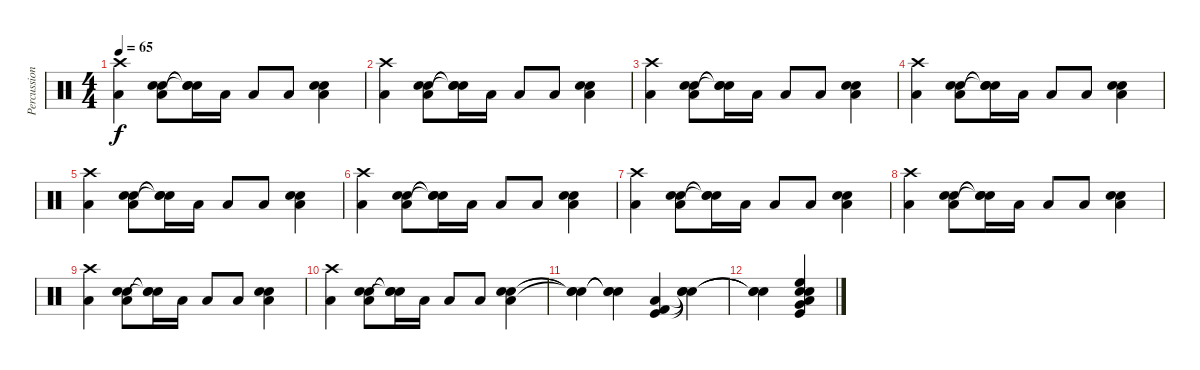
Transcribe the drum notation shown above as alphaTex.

\track ("Percussion" "Percussion") {instrument percussion}
\staff {score}
\articulation defaults
\ts (4 4)
\tempo 65
\clef neutral
\ks c
("Crash high (hit)" "Low Tom (hit)").4{dy f} ("Snare (hit) 2" "Electric Snare (hit)" "Low Tom (hit)").8 ("Snare (hit)"{t} "Snare (hit)"{t} "Snare (hit)"{t}).16 "Low Tom (hit)".16 "Low Tom (hit)".8 "Low Tom (hit)".8 ("Snare (hit) 2" "Electric Snare (hit)" "Low Tom (hit)").4 |
("Crash high (hit)" "Low Tom (hit)").4 ("Snare (hit) 2" "Electric Snare (hit)" "Low Tom (hit)").8 ("Snare (hit)"{t} "Snare (hit)"{t} "Snare (hit)"{t}).16 "Low Tom (hit)".16 "Low Tom (hit)".8 "Low Tom (hit)".8 ("Snare (hit) 2" "Electric Snare (hit)" "Low Tom (hit)").4 |
("Crash high (hit)" "Low Tom (hit)").4 ("Snare (hit) 2" "Electric Snare (hit)" "Low Tom (hit)").8 ("Snare (hit)"{t} "Snare (hit)"{t} "Snare (hit)"{t}).16 "Low Tom (hit)".16 "Low Tom (hit)".8 "Low Tom (hit)".8 ("Snare (hit) 2" "Electric Snare (hit)" "Low Tom (hit)").4 |
("Crash high (hit)" "Low Tom (hit)").4 ("Snare (hit) 2" "Electric Snare (hit)" "Low Tom (hit)").8 ("Snare (hit)"{t} "Snare (hit)"{t} "Snare (hit)"{t}).16 "Low Tom (hit)".16 "Low Tom (hit)".8 "Low Tom (hit)".8 ("Snare (hit) 2" "Electric Snare (hit)" "Low Tom (hit)").4 |
("Crash high (hit)" "Low Tom (hit)").4 ("Snare (hit) 2" "Electric Snare (hit)" "Low Tom (hit)").8 ("Snare (hit)"{t} "Snare (hit)"{t} "Snare (hit)"{t}).16 "Low Tom (hit)".16 "Low Tom (hit)".8 "Low Tom (hit)".8 ("Snare (hit) 2" "Electric Snare (hit)" "Low Tom (hit)").4 |
("Crash high (hit)" "Low Tom (hit)").4 ("Snare (hit) 2" "Electric Snare (hit)" "Low Tom (hit)").8 ("Snare (hit)"{t} "Snare (hit)"{t} "Snare (hit)"{t}).16 "Low Tom (hit)".16 "Low Tom (hit)".8 "Low Tom (hit)".8 ("Snare (hit) 2" "Electric Snare (hit)" "Low Tom (hit)").4 |
("Crash high (hit)" "Low Tom (hit)").4 ("Snare (hit) 2" "Electric Snare (hit)" "Low Tom (hit)").8 ("Snare (hit)"{t} "Snare (hit)"{t} "Snare (hit)"{t}).16 "Low Tom (hit)".16 "Low Tom (hit)".8 "Low Tom (hit)".8 ("Snare (hit) 2" "Electric Snare (hit)" "Low Tom (hit)").4 |
("Crash high (hit)" "Low Tom (hit)").4 ("Snare (hit) 2" "Electric Snare (hit)" "Low Tom (hit)").8 ("Snare (hit)"{t} "Snare (hit)"{t} "Snare (hit)"{t}).16 "Low Tom (hit)".16 "Low Tom (hit)".8 "Low Tom (hit)".8 ("Snare (hit) 2" "Electric Snare (hit)" "Low Tom (hit)").4 |
("Crash high (hit)" "Low Tom (hit)").4 ("Snare (hit) 2" "Electric Snare (hit)" "Low Tom (hit)").8 ("Snare (hit)"{t} "Snare (hit)"{t} "Snare (hit)"{t}).16 "Low Tom (hit)".16 "Low Tom (hit)".8 "Low Tom (hit)".8 ("Snare (hit) 2" "Electric Snare (hit)" "Low Tom (hit)").4 |
("Crash high (hit)" "Low Tom (hit)").4 ("Snare (hit) 2" "Electric Snare (hit)" "Low Tom (hit)").8 ("Snare (hit)"{t} "Snare (hit)"{t} "Snare (hit)"{t}).16 "Low Tom (hit)".16 "Low Tom (hit)".8 "Low Tom (hit)".8 ("Snare (hit) 2" "Electric Snare (hit)" "Low Tom (hit)").4 |
("Snare (hit)"{t} "Snare (hit)"{t} "Snare (hit)"{t}).4 ("Snare (hit)"{t} "Snare (hit)"{t} "Snare (hit)"{t}).4 ("Low Floor Tom (hit)" "Kick (hit)" "Kick (hit) 2").4 ("Snare (hit)"{t} "Snare (hit)"{t} "Snare (hit)"{t}).4 |
("Snare (hit)"{t} "Snare (hit)"{t} "Snare (hit)"{t}).4 ("Electric Snare (hit)" "Kick (hit)" "High Floor Tom (hit)" "Hand Clap (hit)" "Low Tom (hit)" "Very Low Tom (hit)").4
